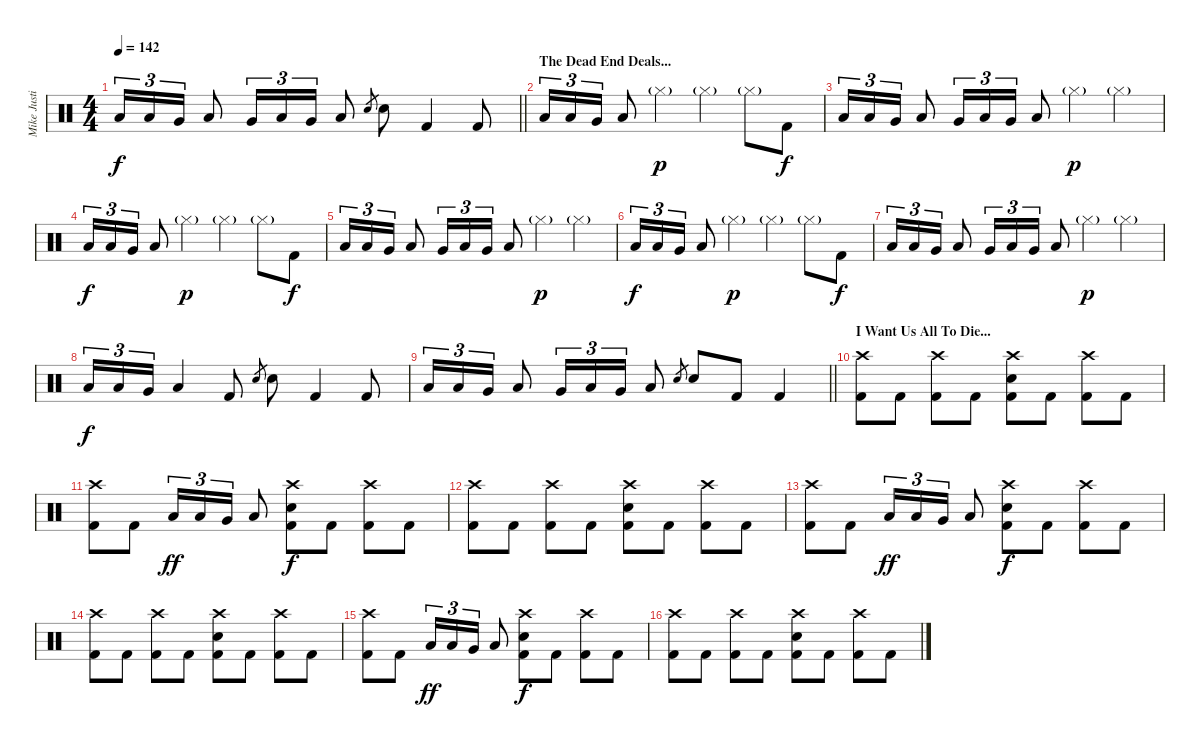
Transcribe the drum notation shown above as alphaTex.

\track ("Mike Justian" "Mike Justi") {instrument percussion}
\staff {score}
\articulation defaults
\ts (4 4)
\tempo 142
\clef neutral
\barLineRight lightlight
\ks c "Low Floor Tom (hit)".16{tu (3 2) dy f} "Low Tom (hit)".16{tu (3 2)} "Very Low Tom (hit)".16{tu (3 2)} "Low Floor Tom (hit)".8 "Very Low Tom (hit)".16{tu (3 2)} "Low Tom (hit)".16{tu (3 2)} "Very Low Tom (hit)".16{tu (3 2)} "Low Floor Tom (hit)".8 "Electric Snare (hit)".8{gr} "Electric Snare (hit)".8 "Kick (hit) 2".4 "Kick (hit) 2".8
|
\section ("" "The Dead End Deals...")
"Low Floor Tom (hit)".16{tu (3 2)} "Low Tom (hit)".16{tu (3 2)} "Very Low Tom (hit)".16{tu (3 2)} "Low Floor Tom (hit)".8 "Hi-Hat (closed)"{g}.4{dy p} "Hi-Hat (closed)"{g}.4 "Hi-Hat (closed)"{g}.8 "Kick (hit) 2".8{dy f} |
"Low Floor Tom (hit)".16{tu (3 2)} "Low Tom (hit)".16{tu (3 2)} "Very Low Tom (hit)".16{tu (3 2)} "Low Floor Tom (hit)".8 "Very Low Tom (hit)".16{tu (3 2)} "Low Tom (hit)".16{tu (3 2)} "Very Low Tom (hit)".16{tu (3 2)} "Low Floor Tom (hit)".8 "Hi-Hat (closed)"{g}.4{dy p} "Hi-Hat (closed)"{g}.4 |
"Low Floor Tom (hit)".16{tu (3 2) dy f} "Low Tom (hit)".16{tu (3 2)} "Very Low Tom (hit)".16{tu (3 2)} "Low Floor Tom (hit)".8 "Hi-Hat (closed)"{g}.4{dy p} "Hi-Hat (closed)"{g}.4 "Hi-Hat (closed)"{g}.8 "Kick (hit) 2".8{dy f} |
"Low Floor Tom (hit)".16{tu (3 2)} "Low Tom (hit)".16{tu (3 2)} "Very Low Tom (hit)".16{tu (3 2)} "Low Floor Tom (hit)".8 "Very Low Tom (hit)".16{tu (3 2)} "Low Tom (hit)".16{tu (3 2)} "Very Low Tom (hit)".16{tu (3 2)} "Low Floor Tom (hit)".8 "Hi-Hat (closed)"{g}.4{dy p} "Hi-Hat (closed)"{g}.4 |
"Low Floor Tom (hit)".16{tu (3 2) dy f} "Low Tom (hit)".16{tu (3 2)} "Very Low Tom (hit)".16{tu (3 2)} "Low Floor Tom (hit)".8 "Hi-Hat (closed)"{g}.4{dy p} "Hi-Hat (closed)"{g}.4 "Hi-Hat (closed)"{g}.8 "Kick (hit) 2".8{dy f} |
"Low Floor Tom (hit)".16{tu (3 2)} "Low Tom (hit)".16{tu (3 2)} "Very Low Tom (hit)".16{tu (3 2)} "Low Floor Tom (hit)".8 "Very Low Tom (hit)".16{tu (3 2)} "Low Tom (hit)".16{tu (3 2)} "Very Low Tom (hit)".16{tu (3 2)} "Low Floor Tom (hit)".8 "Hi-Hat (closed)"{g}.4{dy p} "Hi-Hat (closed)"{g}.4 |
"Low Floor Tom (hit)".16{tu (3 2) dy f} "Low Tom (hit)".16{tu (3 2)} "Very Low Tom (hit)".16{tu (3 2)} "Low Floor Tom (hit)".4 "Kick (hit) 2".8 "Electric Snare (hit)".8{gr} "Electric Snare (hit)".8 "Kick (hit) 2".4 "Kick (hit) 2".8 |
\barLineRight lightlight "Low Floor Tom (hit)".16{tu (3 2)} "Low Tom (hit)".16{tu (3 2)} "Very Low Tom (hit)".16{tu (3 2)} "Low Floor Tom (hit)".8 "Very Low Tom (hit)".16{tu (3 2)} "Low Tom (hit)".16{tu (3 2)} "Very Low Tom (hit)".16{tu (3 2)} "Low Floor Tom (hit)".8 "Electric Snare (hit)".8{gr} "Electric Snare (hit)".8 "Kick (hit) 2".8 "Kick (hit) 2".4
|
\section ("" "I Want Us All To Die...")
("Crash high (hit)" "Kick (hit) 2").8 "Kick (hit) 2".8 ("Crash high (hit)" "Kick (hit) 2").8 "Kick (hit) 2".8 ("Crash high (hit)" "Electric Snare (hit)" "Kick (hit) 2").8 "Kick (hit) 2".8 ("Crash high (hit)" "Kick (hit) 2").8 "Kick (hit) 2".8 |
("Crash high (hit)" "Kick (hit) 2").8 "Kick (hit) 2".8 "Low Floor Tom (hit)".16{tu (3 2) dy ff} "Low Tom (hit)".16{tu (3 2)} "Very Low Tom (hit)".16{tu (3 2)} "Low Floor Tom (hit)".8 ("Crash high (hit)" "Electric Snare (hit)" "Kick (hit) 2").8{dy f} "Kick (hit) 2".8 ("Crash high (hit)" "Kick (hit) 2").8 "Kick (hit) 2".8 |
("Crash high (hit)" "Kick (hit) 2").8 "Kick (hit) 2".8 ("Crash high (hit)" "Kick (hit) 2").8 "Kick (hit) 2".8 ("Crash high (hit)" "Electric Snare (hit)" "Kick (hit) 2").8 "Kick (hit) 2".8 ("Crash high (hit)" "Kick (hit) 2").8 "Kick (hit) 2".8 |
("Crash high (hit)" "Kick (hit) 2").8 "Kick (hit) 2".8 "Low Floor Tom (hit)".16{tu (3 2) dy ff} "Low Tom (hit)".16{tu (3 2)} "Very Low Tom (hit)".16{tu (3 2)} "Low Floor Tom (hit)".8 ("Crash high (hit)" "Electric Snare (hit)" "Kick (hit) 2").8{dy f} "Kick (hit) 2".8 ("Crash high (hit)" "Kick (hit) 2").8 "Kick (hit) 2".8 |
("Crash high (hit)" "Kick (hit) 2").8 "Kick (hit) 2".8 ("Crash high (hit)" "Kick (hit) 2").8 "Kick (hit) 2".8 ("Crash high (hit)" "Electric Snare (hit)" "Kick (hit) 2").8 "Kick (hit) 2".8 ("Crash high (hit)" "Kick (hit) 2").8 "Kick (hit) 2".8 |
("Crash high (hit)" "Kick (hit) 2").8 "Kick (hit) 2".8 "Low Floor Tom (hit)".16{tu (3 2) dy ff} "Low Tom (hit)".16{tu (3 2)} "Very Low Tom (hit)".16{tu (3 2)} "Low Floor Tom (hit)".8 ("Crash high (hit)" "Electric Snare (hit)" "Kick (hit) 2").8{dy f} "Kick (hit) 2".8 ("Crash high (hit)" "Kick (hit) 2").8 "Kick (hit) 2".8 |
("Crash high (hit)" "Kick (hit) 2").8 "Kick (hit) 2".8 ("Crash high (hit)" "Kick (hit) 2").8 "Kick (hit) 2".8 ("Crash high (hit)" "Electric Snare (hit)" "Kick (hit) 2").8 "Kick (hit) 2".8 ("Crash high (hit)" "Kick (hit) 2").8 "Kick (hit) 2".8
